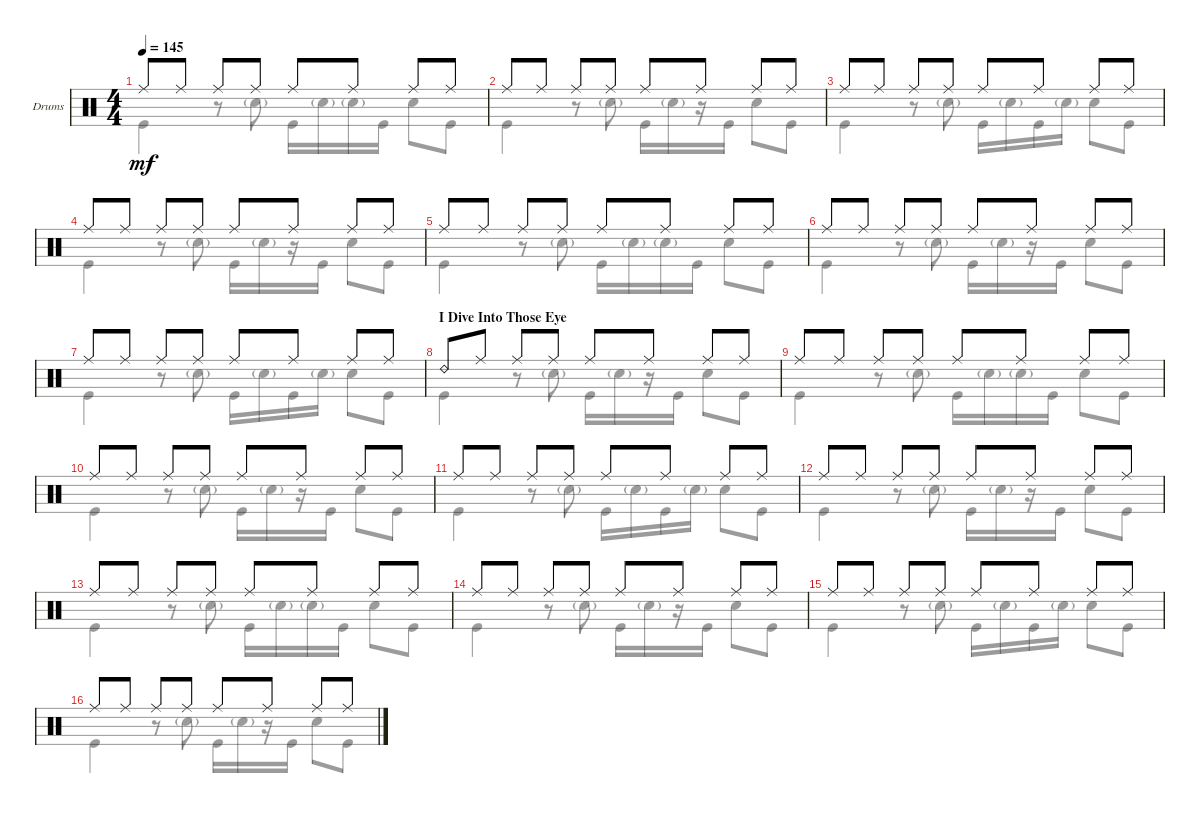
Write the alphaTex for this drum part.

\defaultSystemsLayout 4
\bracketExtendMode groupsimilarinstruments
\firstSystemTrackNameOrientation horizontal
\otherSystemsTrackNameOrientation horizontal
\track ("Drumkit" "Drums") {instrument percussion}
\staff {score}
\articulation defaults
\voice
\ts (4 4)
\tempo 145
\clef neutral
\ks c "Ride (middle)".8{dy mf} "Ride (middle)".8 "Ride (middle)".8 "Ride (middle)".8 "Ride (middle)".8 "Ride (middle)".8 "Ride (middle)".8 "Ride (middle)".8
|
"Ride (middle)".8 "Ride (middle)".8 "Ride (middle)".8 "Ride (middle)".8 "Ride (middle)".8 "Ride (middle)".8 "Ride (middle)".8 "Ride (middle)".8 |
"Ride (middle)".8 "Ride (middle)".8 "Ride (middle)".8 "Ride (middle)".8 "Ride (middle)".8 "Ride (middle)".8 "Ride (middle)".8 "Ride (middle)".8 |
"Ride (middle)".8 "Ride (middle)".8 "Ride (middle)".8 "Ride (middle)".8 "Ride (middle)".8 "Ride (middle)".8 "Ride (middle)".8 "Ride (middle)".8 |
"Ride (middle)".8 "Ride (middle)".8 "Ride (middle)".8 "Ride (middle)".8 "Ride (middle)".8 "Ride (middle)".8 "Ride (middle)".8 "Ride (middle)".8 |
"Ride (middle)".8 "Ride (middle)".8 "Ride (middle)".8 "Ride (middle)".8 "Ride (middle)".8 "Ride (middle)".8 "Ride (middle)".8 "Ride (middle)".8 |
"Ride (middle)".8 "Ride (middle)".8 "Ride (middle)".8 "Ride (middle)".8 "Ride (middle)".8 "Ride (middle)".8 "Ride (middle)".8 "Ride (middle)".8 |
\section ("" "I Dive Into Those Eye")
"Ride (bell) 2".8 "Ride (middle)".8 "Ride (middle)".8 "Ride (middle)".8 "Ride (middle)".8 "Ride (middle)".8 "Ride (middle)".8 "Ride (middle)".8 |
"Ride (middle)".8 "Ride (middle)".8 "Ride (middle)".8 "Ride (middle)".8 "Ride (middle)".8 "Ride (middle)".8 "Ride (middle)".8 "Ride (middle)".8 |
"Ride (middle)".8 "Ride (middle)".8 "Ride (middle)".8 "Ride (middle)".8 "Ride (middle)".8 "Ride (middle)".8 "Ride (middle)".8 "Ride (middle)".8 |
"Ride (middle)".8 "Ride (middle)".8 "Ride (middle)".8 "Ride (middle)".8 "Ride (middle)".8 "Ride (middle)".8 "Ride (middle)".8 "Ride (middle)".8 |
"Ride (middle)".8 "Ride (middle)".8 "Ride (middle)".8 "Ride (middle)".8 "Ride (middle)".8 "Ride (middle)".8 "Ride (middle)".8 "Ride (middle)".8 |
"Ride (middle)".8 "Ride (middle)".8 "Ride (middle)".8 "Ride (middle)".8 "Ride (middle)".8 "Ride (middle)".8 "Ride (middle)".8 "Ride (middle)".8 |
"Ride (middle)".8 "Ride (middle)".8 "Ride (middle)".8 "Ride (middle)".8 "Ride (middle)".8 "Ride (middle)".8 "Ride (middle)".8 "Ride (middle)".8 |
"Ride (middle)".8 "Ride (middle)".8 "Ride (middle)".8 "Ride (middle)".8 "Ride (middle)".8 "Ride (middle)".8 "Ride (middle)".8 "Ride (middle)".8 |
"Ride (middle)".8 "Ride (middle)".8 "Ride (middle)".8 "Ride (middle)".8 "Ride (middle)".8 "Ride (middle)".8 "Ride (middle)".8 "Ride (middle)".8
\voice
\clef neutral
\ottava regular
\simile none
\ks c "Kick (hit)".4{dy mf}
r.8 "Snare (hit) 2"{g}.8 "Kick (hit)".16 "Snare (hit) 2"{g}.16 "Snare (hit) 2"{g}.16 "Kick (hit)".16 "Snare (hit) 2".8 "Kick (hit)".8 |
"Kick (hit)".4 r.8 "Snare (hit) 2"{g}.8 "Kick (hit)".16 "Snare (hit) 2"{g}.16 r.16 "Kick (hit)".16 "Snare (hit) 2".8 "Kick (hit)".8 |
"Kick (hit)".4 r.8 "Snare (hit) 2"{g}.8 "Kick (hit)".16 "Snare (hit) 2"{g}.16 "Kick (hit)".16 "Snare (hit) 2"{g}.16 "Snare (hit) 2".8 "Kick (hit)".8 |
"Kick (hit)".4 r.8 "Snare (hit) 2"{g}.8 "Kick (hit)".16 "Snare (hit) 2"{g}.16 r.16 "Kick (hit)".16 "Snare (hit) 2".8 "Kick (hit)".8 |
"Kick (hit)".4 r.8 "Snare (hit) 2"{g}.8 "Kick (hit)".16 "Snare (hit) 2"{g}.16 "Snare (hit) 2"{g}.16 "Kick (hit)".16 "Snare (hit) 2".8 "Kick (hit)".8 |
"Kick (hit)".4 r.8 "Snare (hit) 2"{g}.8 "Kick (hit)".16 "Snare (hit) 2"{g}.16 r.16 "Kick (hit)".16 "Snare (hit) 2".8 "Kick (hit)".8 |
"Kick (hit)".4 r.8 "Snare (hit) 2"{g}.8 "Kick (hit)".16 "Snare (hit) 2"{g}.16 "Kick (hit)".16 "Snare (hit) 2"{g}.16 "Snare (hit) 2".8 "Kick (hit)".8 |
"Kick (hit)".4 r.8 "Snare (hit) 2"{g}.8 "Kick (hit)".16 "Snare (hit) 2"{g}.16 r.16 "Kick (hit)".16 "Snare (hit) 2".8 "Kick (hit)".8 |
"Kick (hit)".4 r.8 "Snare (hit) 2"{g}.8 "Kick (hit)".16 "Snare (hit) 2"{g}.16 "Snare (hit) 2"{g}.16 "Kick (hit)".16 "Snare (hit) 2".8 "Kick (hit)".8 |
"Kick (hit)".4 r.8 "Snare (hit) 2"{g}.8 "Kick (hit)".16 "Snare (hit) 2"{g}.16 r.16 "Kick (hit)".16 "Snare (hit) 2".8 "Kick (hit)".8 |
"Kick (hit)".4 r.8 "Snare (hit) 2"{g}.8 "Kick (hit)".16 "Snare (hit) 2"{g}.16 "Kick (hit)".16 "Snare (hit) 2"{g}.16 "Snare (hit) 2".8 "Kick (hit)".8 |
"Kick (hit)".4 r.8 "Snare (hit) 2"{g}.8 "Kick (hit)".16 "Snare (hit) 2"{g}.16 r.16 "Kick (hit)".16 "Snare (hit) 2".8 "Kick (hit)".8 |
"Kick (hit)".4 r.8 "Snare (hit) 2"{g}.8 "Kick (hit)".16 "Snare (hit) 2"{g}.16 "Snare (hit) 2"{g}.16 "Kick (hit)".16 "Snare (hit) 2".8 "Kick (hit)".8 |
"Kick (hit)".4 r.8 "Snare (hit) 2"{g}.8 "Kick (hit)".16 "Snare (hit) 2"{g}.16 r.16 "Kick (hit)".16 "Snare (hit) 2".8 "Kick (hit)".8 |
"Kick (hit)".4 r.8 "Snare (hit) 2"{g}.8 "Kick (hit)".16 "Snare (hit) 2"{g}.16 "Kick (hit)".16 "Snare (hit) 2"{g}.16 "Snare (hit) 2".8 "Kick (hit)".8 |
"Kick (hit)".4 r.8 "Snare (hit) 2"{g}.8 "Kick (hit)".16 "Snare (hit) 2"{g}.16 r.16 "Kick (hit)".16 "Snare (hit) 2".8 "Kick (hit)".8
